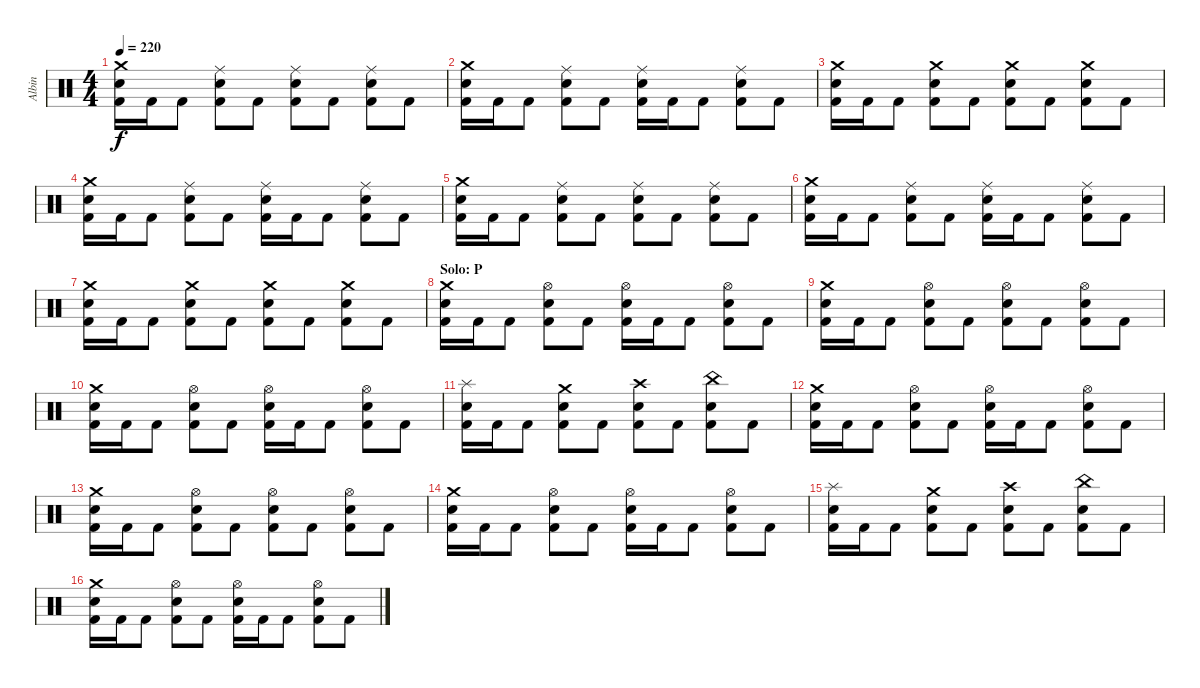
\track ("Albin" "Albin") {instrument percussion}
\staff {score}
\articulation defaults
\ts (4 4)
\tempo 220
\clef neutral
\ks c
("Kick (hit) 2" "Electric Snare (hit)" "Crash medium (hit)").16{dy f} "Kick (hit) 2".16 "Kick (hit) 2".8 ("Kick (hit) 2" "Electric Snare (hit)" "Ride (middle)").8 "Kick (hit) 2".8 ("Kick (hit) 2" "Electric Snare (hit)" "Ride (middle)").8 "Kick (hit) 2".8 ("Kick (hit) 2" "Electric Snare (hit)" "Ride (middle)").8 "Kick (hit) 2".8 |
("Kick (hit) 2" "Electric Snare (hit)" "Crash medium (hit)").16 "Kick (hit) 2".16 "Kick (hit) 2".8 ("Kick (hit) 2" "Electric Snare (hit)" "Ride (middle)").8 "Kick (hit) 2".8 ("Kick (hit) 2" "Electric Snare (hit)" "Ride (middle)").16 "Kick (hit) 2".16 "Kick (hit) 2".8 ("Kick (hit) 2" "Electric Snare (hit)" "Ride (middle)").8 "Kick (hit) 2".8 |
("Kick (hit) 2" "Electric Snare (hit)" "Crash medium (hit)").16 "Kick (hit) 2".16 "Kick (hit) 2".8 ("Kick (hit) 2" "Electric Snare (hit)" "Crash medium (hit)").8 "Kick (hit) 2".8 ("Kick (hit) 2" "Electric Snare (hit)" "Crash medium (hit)").8 "Kick (hit) 2".8 ("Kick (hit) 2" "Electric Snare (hit)" "Crash medium (hit)").8 "Kick (hit) 2".8 |
("Kick (hit) 2" "Electric Snare (hit)" "Crash medium (hit)").16 "Kick (hit) 2".16 "Kick (hit) 2".8 ("Kick (hit) 2" "Electric Snare (hit)" "Ride (middle)").8 "Kick (hit) 2".8 ("Kick (hit) 2" "Electric Snare (hit)" "Ride (middle)").16 "Kick (hit) 2".16 "Kick (hit) 2".8 ("Kick (hit) 2" "Electric Snare (hit)" "Ride (middle)").8 "Kick (hit) 2".8 |
("Kick (hit) 2" "Electric Snare (hit)" "Crash medium (hit)").16 "Kick (hit) 2".16 "Kick (hit) 2".8 ("Kick (hit) 2" "Electric Snare (hit)" "Ride (middle)").8 "Kick (hit) 2".8 ("Kick (hit) 2" "Electric Snare (hit)" "Ride (middle)").8 "Kick (hit) 2".8 ("Kick (hit) 2" "Electric Snare (hit)" "Ride (middle)").8 "Kick (hit) 2".8 |
("Kick (hit) 2" "Electric Snare (hit)" "Crash medium (hit)").16 "Kick (hit) 2".16 "Kick (hit) 2".8 ("Kick (hit) 2" "Electric Snare (hit)" "Ride (middle)").8 "Kick (hit) 2".8 ("Kick (hit) 2" "Electric Snare (hit)" "Ride (middle)").16 "Kick (hit) 2".16 "Kick (hit) 2".8 ("Kick (hit) 2" "Electric Snare (hit)" "Ride (middle)").8 "Kick (hit) 2".8 |
("Kick (hit) 2" "Electric Snare (hit)" "Crash medium (hit)").16 "Kick (hit) 2".16 "Kick (hit) 2".8 ("Kick (hit) 2" "Electric Snare (hit)" "Crash medium (hit)").8 "Kick (hit) 2".8 ("Kick (hit) 2" "Electric Snare (hit)" "Crash medium (hit)").8 "Kick (hit) 2".8 ("Kick (hit) 2" "Electric Snare (hit)" "Crash medium (hit)").8 "Kick (hit) 2".8 |
\section ("" "Solo: P")
("Kick (hit) 2" "Electric Snare (hit)" "Crash medium (hit)").16 "Kick (hit) 2".16 "Kick (hit) 2".8 ("Kick (hit) 2" "Electric Snare (hit)" "Hi-Hat (open)").8 "Kick (hit) 2".8 ("Kick (hit) 2" "Electric Snare (hit)" "Hi-Hat (open)").16 "Kick (hit) 2".16 "Kick (hit) 2".8 ("Kick (hit) 2" "Electric Snare (hit)" "Hi-Hat (open)").8 "Kick (hit) 2".8 |
("Kick (hit) 2" "Electric Snare (hit)" "Crash medium (hit)").16 "Kick (hit) 2".16 "Kick (hit) 2".8 ("Kick (hit) 2" "Electric Snare (hit)" "Hi-Hat (open)").8 "Kick (hit) 2".8 ("Kick (hit) 2" "Electric Snare (hit)" "Hi-Hat (open)").8 "Kick (hit) 2".8 ("Kick (hit) 2" "Electric Snare (hit)" "Hi-Hat (open)").8 "Kick (hit) 2".8 |
("Kick (hit) 2" "Electric Snare (hit)" "Crash medium (hit)").16 "Kick (hit) 2".16 "Kick (hit) 2".8 ("Kick (hit) 2" "Electric Snare (hit)" "Hi-Hat (open)").8 "Kick (hit) 2".8 ("Kick (hit) 2" "Electric Snare (hit)" "Hi-Hat (open)").16 "Kick (hit) 2".16 "Kick (hit) 2".8 ("Kick (hit) 2" "Electric Snare (hit)" "Hi-Hat (open)").8 "Kick (hit) 2".8 |
("Kick (hit) 2" "Electric Snare (hit)" "Splash (hit)").16 "Kick (hit) 2".16 "Kick (hit) 2".8 ("Kick (hit) 2" "Electric Snare (hit)" "Crash medium (hit)").8 "Kick (hit) 2".8 ("Kick (hit) 2" "Electric Snare (hit)" "Crash high (hit)").8 "Kick (hit) 2".8 ("Kick (hit) 2" "Electric Snare (hit)" "China (hit)").8 "Kick (hit) 2".8 |
("Kick (hit) 2" "Electric Snare (hit)" "Crash medium (hit)").16 "Kick (hit) 2".16 "Kick (hit) 2".8 ("Kick (hit) 2" "Electric Snare (hit)" "Hi-Hat (open)").8 "Kick (hit) 2".8 ("Kick (hit) 2" "Electric Snare (hit)" "Hi-Hat (open)").16 "Kick (hit) 2".16 "Kick (hit) 2".8 ("Kick (hit) 2" "Electric Snare (hit)" "Hi-Hat (open)").8 "Kick (hit) 2".8 |
("Kick (hit) 2" "Electric Snare (hit)" "Crash medium (hit)").16 "Kick (hit) 2".16 "Kick (hit) 2".8 ("Kick (hit) 2" "Electric Snare (hit)" "Hi-Hat (open)").8 "Kick (hit) 2".8 ("Kick (hit) 2" "Electric Snare (hit)" "Hi-Hat (open)").8 "Kick (hit) 2".8 ("Kick (hit) 2" "Electric Snare (hit)" "Hi-Hat (open)").8 "Kick (hit) 2".8 |
("Kick (hit) 2" "Electric Snare (hit)" "Crash medium (hit)").16 "Kick (hit) 2".16 "Kick (hit) 2".8 ("Kick (hit) 2" "Electric Snare (hit)" "Hi-Hat (open)").8 "Kick (hit) 2".8 ("Kick (hit) 2" "Electric Snare (hit)" "Hi-Hat (open)").16 "Kick (hit) 2".16 "Kick (hit) 2".8 ("Kick (hit) 2" "Electric Snare (hit)" "Hi-Hat (open)").8 "Kick (hit) 2".8 |
("Kick (hit) 2" "Electric Snare (hit)" "Splash (hit)").16 "Kick (hit) 2".16 "Kick (hit) 2".8 ("Kick (hit) 2" "Electric Snare (hit)" "Crash medium (hit)").8 "Kick (hit) 2".8 ("Kick (hit) 2" "Electric Snare (hit)" "Crash high (hit)").8 "Kick (hit) 2".8 ("Kick (hit) 2" "Electric Snare (hit)" "China (hit)").8 "Kick (hit) 2".8 |
("Kick (hit) 2" "Electric Snare (hit)" "Crash medium (hit)").16 "Kick (hit) 2".16 "Kick (hit) 2".8 ("Kick (hit) 2" "Electric Snare (hit)" "Hi-Hat (open)").8 "Kick (hit) 2".8 ("Kick (hit) 2" "Electric Snare (hit)" "Hi-Hat (open)").16 "Kick (hit) 2".16 "Kick (hit) 2".8 ("Kick (hit) 2" "Electric Snare (hit)" "Hi-Hat (open)").8 "Kick (hit) 2".8
